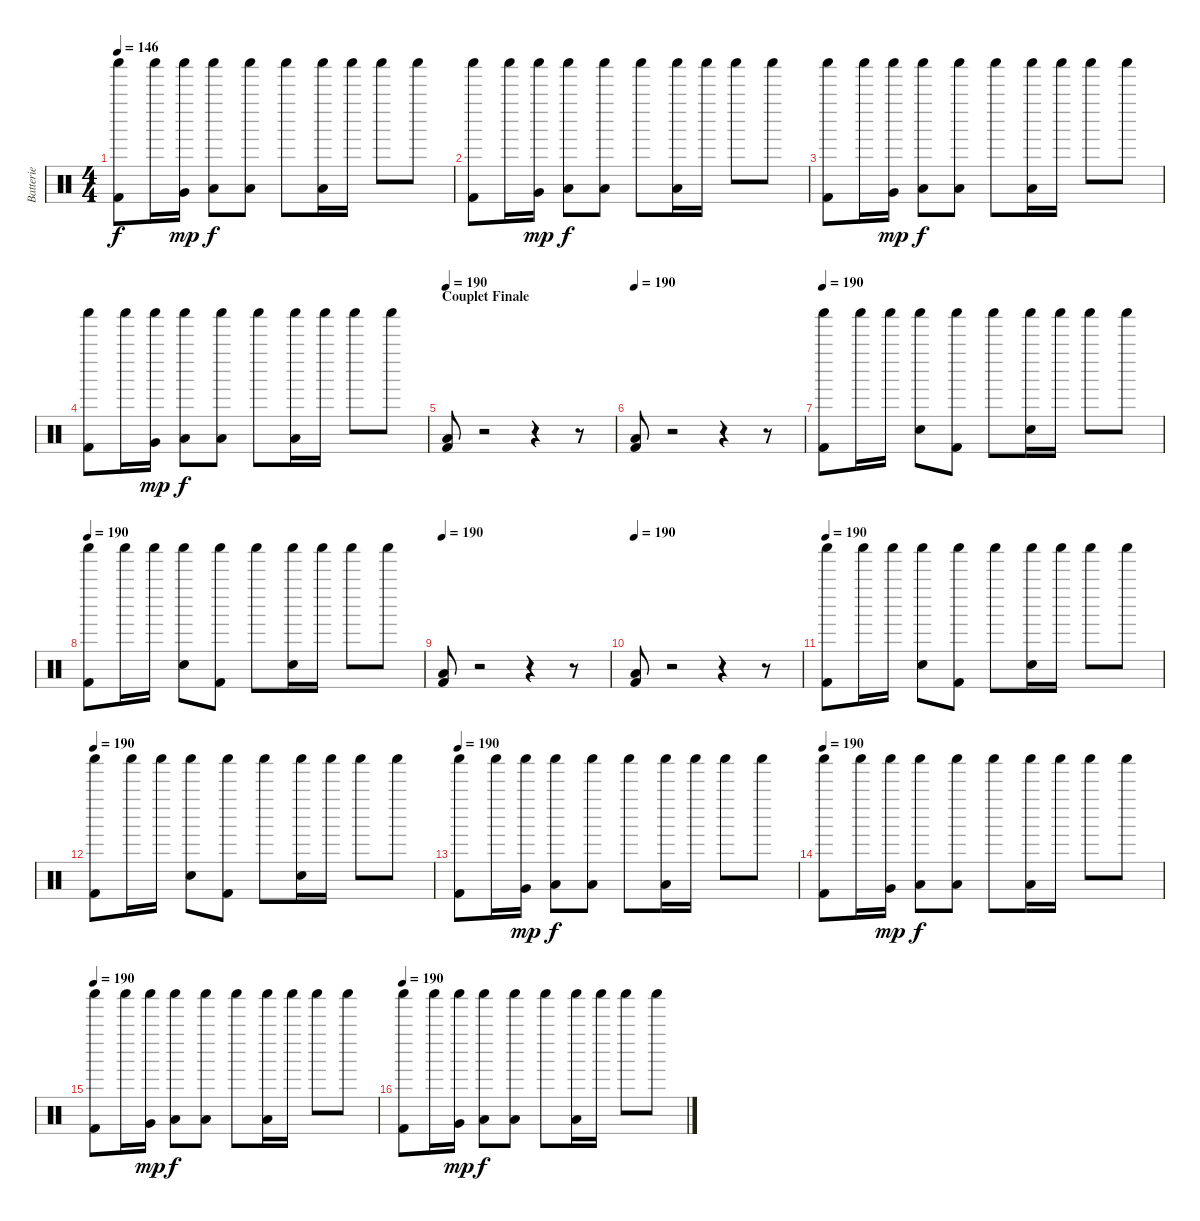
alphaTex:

\track ("Batterie" "Batterie") {instrument percussion}
\staff {score}
\articulation defaults
\ts (4 4)
\tempo 146
\clef neutral
\ks c
("Shaker (hit)" "Kick (hit) 2").8{dy f} "Shaker (hit)".16 ("Shaker (hit)" "Very Low Tom (hit)").16{dy mp} ("Shaker (hit)" "Low Tom (hit)").8{dy f} ("Shaker (hit)" "Low Tom (hit)").8 "Shaker (hit)".8 ("Shaker (hit)" "Low Tom (hit)").16 "Shaker (hit)".16 "Shaker (hit)".8 "Shaker (hit)".8 |
("Shaker (hit)" "Kick (hit) 2").8 "Shaker (hit)".16 ("Shaker (hit)" "Very Low Tom (hit)").16{dy mp} ("Shaker (hit)" "Low Tom (hit)").8{dy f} ("Shaker (hit)" "Low Tom (hit)").8 "Shaker (hit)".8 ("Shaker (hit)" "Low Tom (hit)").16 "Shaker (hit)".16 "Shaker (hit)".8 "Shaker (hit)".8 |
("Shaker (hit)" "Kick (hit) 2").8 "Shaker (hit)".16 ("Shaker (hit)" "Very Low Tom (hit)").16{dy mp} ("Shaker (hit)" "Low Tom (hit)").8{dy f} ("Shaker (hit)" "Low Tom (hit)").8 "Shaker (hit)".8 ("Shaker (hit)" "Low Tom (hit)").16 "Shaker (hit)".16 "Shaker (hit)".8 "Shaker (hit)".8 |
("Shaker (hit)" "Kick (hit) 2").8 "Shaker (hit)".16 ("Shaker (hit)" "Very Low Tom (hit)").16{dy mp} ("Shaker (hit)" "Low Tom (hit)").8{dy f} ("Shaker (hit)" "Low Tom (hit)").8 "Shaker (hit)".8 ("Shaker (hit)" "Low Tom (hit)").16 "Shaker (hit)".16 "Shaker (hit)".8 "Shaker (hit)".8 |
\section ("" "Couplet Finale")
\tempo 200
\tempo 190
("Low Tom (hit)" "Kick (hit) 2").8 r.2 r.4 r.8 |
\tempo 190
("Low Tom (hit)" "Kick (hit) 2").8 r.2 r.4 r.8 |
\tempo 190
("Shaker (hit)" "Kick (hit) 2").8 "Shaker (hit)".16 "Shaker (hit)".16 ("Shaker (hit)" "Electric Snare (hit)").8 ("Shaker (hit)" "Kick (hit) 2").8 "Shaker (hit)".8 ("Shaker (hit)" "Electric Snare (hit)").16 "Shaker (hit)".16 "Shaker (hit)".8 "Shaker (hit)".8 |
\tempo 190
("Shaker (hit)" "Kick (hit) 2").8 "Shaker (hit)".16 "Shaker (hit)".16 ("Shaker (hit)" "Electric Snare (hit)").8 ("Shaker (hit)" "Kick (hit) 2").8 "Shaker (hit)".8 ("Shaker (hit)" "Electric Snare (hit)").16 "Shaker (hit)".16 "Shaker (hit)".8 "Shaker (hit)".8 |
\tempo 200
\tempo 190
("Low Tom (hit)" "Kick (hit) 2").8 r.2 r.4 r.8 |
\tempo 190
("Low Tom (hit)" "Kick (hit) 2").8 r.2 r.4 r.8 |
\tempo 190
("Shaker (hit)" "Kick (hit) 2").8 "Shaker (hit)".16 "Shaker (hit)".16 ("Shaker (hit)" "Electric Snare (hit)").8 ("Shaker (hit)" "Kick (hit) 2").8 "Shaker (hit)".8 ("Shaker (hit)" "Electric Snare (hit)").16 "Shaker (hit)".16 "Shaker (hit)".8 "Shaker (hit)".8 |
\tempo 190
("Shaker (hit)" "Kick (hit) 2").8 "Shaker (hit)".16 "Shaker (hit)".16 ("Shaker (hit)" "Electric Snare (hit)").8 ("Shaker (hit)" "Kick (hit) 2").8 "Shaker (hit)".8 ("Shaker (hit)" "Electric Snare (hit)").16 "Shaker (hit)".16 "Shaker (hit)".8 "Shaker (hit)".8 |
\tempo 190
("Shaker (hit)" "Kick (hit) 2").8 "Shaker (hit)".16 ("Shaker (hit)" "Very Low Tom (hit)").16{dy mp} ("Shaker (hit)" "Low Tom (hit)").8{dy f} ("Shaker (hit)" "Low Tom (hit)").8 "Shaker (hit)".8 ("Shaker (hit)" "Low Tom (hit)").16 "Shaker (hit)".16 "Shaker (hit)".8 "Shaker (hit)".8 |
\tempo 190
("Shaker (hit)" "Kick (hit) 2").8 "Shaker (hit)".16 ("Shaker (hit)" "Very Low Tom (hit)").16{dy mp} ("Shaker (hit)" "Low Tom (hit)").8{dy f} ("Shaker (hit)" "Low Tom (hit)").8 "Shaker (hit)".8 ("Shaker (hit)" "Low Tom (hit)").16 "Shaker (hit)".16 "Shaker (hit)".8 "Shaker (hit)".8 |
\tempo 190
("Shaker (hit)" "Kick (hit) 2").8 "Shaker (hit)".16 ("Shaker (hit)" "Very Low Tom (hit)").16{dy mp} ("Shaker (hit)" "Low Tom (hit)").8{dy f} ("Shaker (hit)" "Low Tom (hit)").8 "Shaker (hit)".8 ("Shaker (hit)" "Low Tom (hit)").16 "Shaker (hit)".16 "Shaker (hit)".8 "Shaker (hit)".8 |
\tempo 190
("Shaker (hit)" "Kick (hit) 2").8 "Shaker (hit)".16 ("Shaker (hit)" "Very Low Tom (hit)").16{dy mp} ("Shaker (hit)" "Low Tom (hit)").8{dy f} ("Shaker (hit)" "Low Tom (hit)").8 "Shaker (hit)".8 ("Shaker (hit)" "Low Tom (hit)").16 "Shaker (hit)".16 "Shaker (hit)".8 "Shaker (hit)".8
